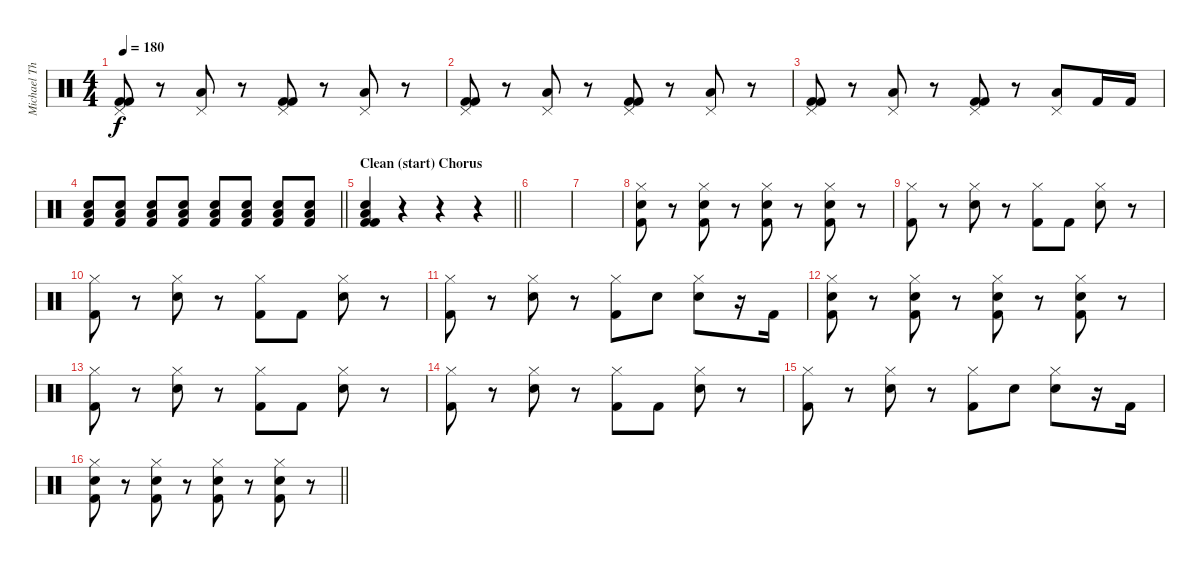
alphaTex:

\track ("Michael Thomas" "Michael Th") {instrument percussion}
\staff
\articulation defaults
\ts (4 4)
\tempo 180
\clef neutral
\ks c
("Pedal Hi-Hat (hit)" "Kick (hit) 2" "Kick (hit) 2").8{dy f} r.8 ("Pedal Hi-Hat (hit)" "Low Floor Tom (hit)").8 r.8 ("Pedal Hi-Hat (hit)" "Kick (hit) 2" "Kick (hit) 2").8 r.8 ("Pedal Hi-Hat (hit)" "Low Floor Tom (hit)").8 r.8 |
("Pedal Hi-Hat (hit)" "Kick (hit) 2" "Kick (hit) 2").8 r.8 ("Pedal Hi-Hat (hit)" "Low Floor Tom (hit)").8 r.8 ("Pedal Hi-Hat (hit)" "Kick (hit) 2" "Kick (hit) 2").8 r.8 ("Pedal Hi-Hat (hit)" "Low Floor Tom (hit)").8 r.8 |
("Pedal Hi-Hat (hit)" "Kick (hit) 2" "Kick (hit) 2").8 r.8 ("Pedal Hi-Hat (hit)" "Low Floor Tom (hit)").8 r.8 ("Pedal Hi-Hat (hit)" "Kick (hit) 2" "Kick (hit) 2").8 r.8 ("Pedal Hi-Hat (hit)" "Low Floor Tom (hit)").8 "Kick (hit) 2".16 "Kick (hit) 2".16 |
\barLineRight lightlight
("Low Floor Tom (hit)" "Electric Snare (hit)" "Kick (hit) 2").8 ("Low Floor Tom (hit)" "Electric Snare (hit)" "Kick (hit) 2").8 ("Low Floor Tom (hit)" "Electric Snare (hit)" "Kick (hit) 2").8 ("Low Floor Tom (hit)" "Electric Snare (hit)" "Kick (hit) 2").8 ("Low Floor Tom (hit)" "Electric Snare (hit)" "Kick (hit) 2").8 ("Low Floor Tom (hit)" "Electric Snare (hit)" "Kick (hit) 2").8 ("Low Floor Tom (hit)" "Electric Snare (hit)" "Kick (hit) 2").8 ("Low Floor Tom (hit)" "Electric Snare (hit)" "Kick (hit) 2").8 |
\section ("" "Clean (start) Chorus")
\barLineRight lightlight
("Low Floor Tom (hit)" "Electric Snare (hit)" "Kick (hit) 2" "Kick (hit) 2").4 r.4 r.4 r.4 |
|
|
("Hi-Hat (closed)" "Electric Snare (hit)" "Kick (hit) 2").8 r.8 ("Hi-Hat (closed)" "Electric Snare (hit)" "Kick (hit) 2").8 r.8 ("Hi-Hat (closed)" "Electric Snare (hit)" "Kick (hit) 2").8 r.8 ("Hi-Hat (closed)" "Electric Snare (hit)" "Kick (hit) 2").8 r.8 |
("Hi-Hat (closed)" "Kick (hit) 2").8 r.8 ("Hi-Hat (closed)" "Electric Snare (hit)").8 r.8 ("Hi-Hat (closed)" "Kick (hit) 2").8 "Kick (hit) 2".8 ("Hi-Hat (closed)" "Electric Snare (hit)").8 r.8 |
("Hi-Hat (closed)" "Kick (hit) 2").8 r.8 ("Hi-Hat (closed)" "Electric Snare (hit)").8 r.8 ("Hi-Hat (closed)" "Kick (hit) 2").8 "Kick (hit) 2".8 ("Hi-Hat (closed)" "Electric Snare (hit)").8 r.8 |
("Hi-Hat (closed)" "Kick (hit) 2").8 r.8 ("Hi-Hat (closed)" "Electric Snare (hit)").8 r.8 ("Hi-Hat (closed)" "Kick (hit) 2").8 "Electric Snare (hit)".8 ("Hi-Hat (closed)" "Electric Snare (hit)").8 r.16 "Kick (hit) 2".16 |
("Hi-Hat (closed)" "Electric Snare (hit)" "Kick (hit) 2").8 r.8 ("Hi-Hat (closed)" "Electric Snare (hit)" "Kick (hit) 2").8 r.8 ("Hi-Hat (closed)" "Electric Snare (hit)" "Kick (hit) 2").8 r.8 ("Hi-Hat (closed)" "Electric Snare (hit)" "Kick (hit) 2").8 r.8 |
("Hi-Hat (closed)" "Kick (hit) 2").8 r.8 ("Hi-Hat (closed)" "Electric Snare (hit)").8 r.8 ("Hi-Hat (closed)" "Kick (hit) 2").8 "Kick (hit) 2".8 ("Hi-Hat (closed)" "Electric Snare (hit)").8 r.8 |
("Hi-Hat (closed)" "Kick (hit) 2").8 r.8 ("Hi-Hat (closed)" "Electric Snare (hit)").8 r.8 ("Hi-Hat (closed)" "Kick (hit) 2").8 "Kick (hit) 2".8 ("Hi-Hat (closed)" "Electric Snare (hit)").8 r.8 |
("Hi-Hat (closed)" "Kick (hit) 2").8 r.8 ("Hi-Hat (closed)" "Electric Snare (hit)").8 r.8 ("Hi-Hat (closed)" "Kick (hit) 2").8 "Electric Snare (hit)".8 ("Hi-Hat (closed)" "Electric Snare (hit)").8 r.16 "Kick (hit) 2".16 |
\barLineRight lightlight
("Hi-Hat (closed)" "Electric Snare (hit)" "Kick (hit) 2").8 r.8 ("Hi-Hat (closed)" "Electric Snare (hit)" "Kick (hit) 2").8 r.8 ("Hi-Hat (closed)" "Electric Snare (hit)" "Kick (hit) 2").8 r.8 ("Hi-Hat (closed)" "Electric Snare (hit)" "Kick (hit) 2").8 r.8
